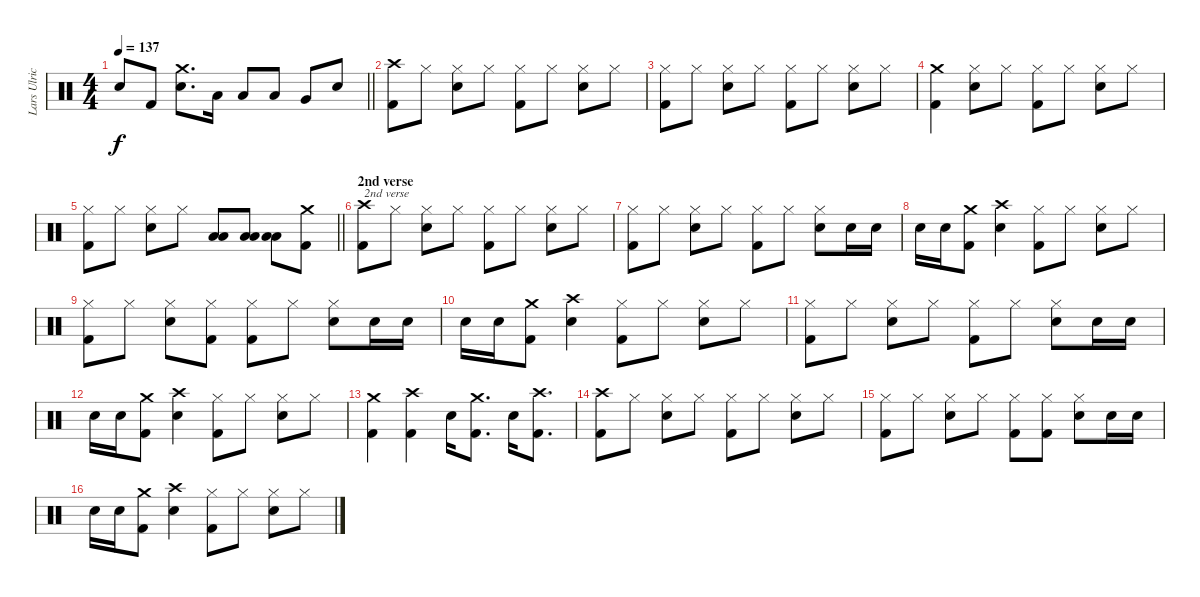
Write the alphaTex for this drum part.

\track ("Lars Ulrich" "Lars Ulric") {instrument percussion}
\staff {score}
\articulation defaults
\ts (4 4)
\tempo 137
\clef neutral
\barLineRight lightlight
\ks c "Snare (hit)"{t}.8{dy f} "Kick (hit) 2".8
("Snare (hit) 2" "Crash medium (hit)").8{d} "Low Tom (hit)".16 "Low Tom (hit)".8 "Low Tom (hit)".8 "Very Low Tom (hit)".8 "Snare (hit) 2".8 |
("Kick (hit) 2" "Crash high (hit)").8 "Hi-Hat (closed)".8 ("Snare (hit) 2" "Hi-Hat (closed)").8 "Hi-Hat (closed)".8 ("Kick (hit) 2" "Hi-Hat (closed)").8 "Hi-Hat (closed)".8 ("Snare (hit) 2" "Hi-Hat (closed)").8 "Hi-Hat (closed)".8 |
("Kick (hit) 2" "Hi-Hat (closed)").8 "Hi-Hat (closed)".8 ("Snare (hit) 2" "Hi-Hat (closed)").8 "Hi-Hat (closed)".8 ("Kick (hit) 2" "Hi-Hat (closed)").8 "Hi-Hat (closed)".8 ("Snare (hit) 2" "Hi-Hat (closed)").8 "Hi-Hat (closed)".8 |
("Kick (hit) 2" "Crash medium (hit)").4 ("Snare (hit) 2" "Hi-Hat (closed)").8 "Hi-Hat (closed)".8 ("Kick (hit) 2" "Hi-Hat (closed)").8 "Hi-Hat (closed)".8 ("Snare (hit) 2" "Hi-Hat (closed)").8 "Hi-Hat (closed)".8 |
\barLineRight lightlight
("Kick (hit) 2" "Hi-Hat (closed)").8 "Hi-Hat (closed)".8 ("Snare (hit) 2" "Hi-Hat (closed)").8 "Hi-Hat (closed)".8 ("Low Tom (hit)" "Low Floor Tom (hit)").8 ("Low Tom (hit)" "Low Floor Tom (hit)").8 ("Low Tom (hit)" "Low Floor Tom (hit)").8 ("Kick (hit) 2" "Crash medium (hit)").8 |
\section ("" "2nd verse")
("Kick (hit) 2" "Crash high (hit)").8{txt "2nd verse"} "Hi-Hat (closed)".8 ("Snare (hit) 2" "Hi-Hat (closed)").8 "Hi-Hat (closed)".8 ("Kick (hit) 2" "Hi-Hat (closed)").8 "Hi-Hat (closed)".8 ("Snare (hit) 2" "Hi-Hat (closed)").8 "Hi-Hat (closed)".8 |
("Kick (hit) 2" "Hi-Hat (closed)").8 "Hi-Hat (closed)".8 ("Snare (hit) 2" "Hi-Hat (closed)").8 "Hi-Hat (closed)".8 ("Kick (hit) 2" "Hi-Hat (closed)").8 "Hi-Hat (closed)".8 ("Snare (hit) 2" "Hi-Hat (closed)").8 "Snare (hit) 2".16 "Snare (hit) 2".16 |
"Snare (hit) 2".16 "Snare (hit) 2".16 ("Kick (hit) 2" "Crash medium (hit)").8 ("Snare (hit) 2" "Crash high (hit)").4 ("Kick (hit) 2" "Hi-Hat (closed)").8 "Hi-Hat (closed)".8 ("Snare (hit) 2" "Hi-Hat (closed)").8 "Hi-Hat (closed)".8 |
("Kick (hit) 2" "Hi-Hat (closed)").8 "Hi-Hat (closed)".8 ("Snare (hit) 2" "Hi-Hat (closed)").8 ("Kick (hit) 2" "Hi-Hat (closed)").8 ("Kick (hit) 2" "Hi-Hat (closed)").8 "Hi-Hat (closed)".8 ("Snare (hit) 2" "Hi-Hat (closed)").8 "Snare (hit) 2".16 "Snare (hit) 2".16 |
"Snare (hit) 2".16 "Snare (hit) 2".16 ("Kick (hit) 2" "Crash medium (hit)").8 ("Snare (hit) 2" "Crash high (hit)").4 ("Kick (hit) 2" "Hi-Hat (closed)").8 "Hi-Hat (closed)".8 ("Snare (hit) 2" "Hi-Hat (closed)").8 "Hi-Hat (closed)".8 |
("Kick (hit) 2" "Hi-Hat (closed)").8 "Hi-Hat (closed)".8 ("Snare (hit) 2" "Hi-Hat (closed)").8 "Hi-Hat (closed)".8 ("Kick (hit) 2" "Hi-Hat (closed)").8 "Hi-Hat (closed)".8 ("Snare (hit) 2" "Hi-Hat (closed)").8 "Snare (hit) 2".16 "Snare (hit) 2".16 |
"Snare (hit) 2".16 "Snare (hit) 2".16 ("Kick (hit) 2" "Crash medium (hit)").8 ("Snare (hit) 2" "Crash high (hit)").4 ("Kick (hit) 2" "Hi-Hat (closed)").8 "Hi-Hat (closed)".8 ("Snare (hit) 2" "Hi-Hat (closed)").8 "Hi-Hat (closed)".8 |
("Kick (hit) 2" "Crash medium (hit)").4 ("Kick (hit) 2" "Crash high (hit)").4 "Snare (hit) 2".16 ("Kick (hit) 2" "Crash medium (hit)").8{d} "Snare (hit) 2".16 ("Kick (hit) 2" "Crash high (hit)").8{d} |
("Kick (hit) 2" "Crash high (hit)").8 "Hi-Hat (closed)".8 ("Snare (hit) 2" "Hi-Hat (closed)").8 "Hi-Hat (closed)".8 ("Kick (hit) 2" "Hi-Hat (closed)").8 "Hi-Hat (closed)".8 ("Snare (hit) 2" "Hi-Hat (closed)").8 "Hi-Hat (closed)".8 |
("Kick (hit) 2" "Hi-Hat (closed)").8 "Hi-Hat (closed)".8 ("Snare (hit) 2" "Hi-Hat (closed)").8 "Hi-Hat (closed)".8 ("Kick (hit) 2" "Hi-Hat (closed)").8 ("Kick (hit) 2" "Hi-Hat (closed)").8 ("Snare (hit) 2" "Hi-Hat (closed)").8 "Snare (hit) 2".16 "Snare (hit) 2".16 |
"Snare (hit) 2".16 "Snare (hit) 2".16 ("Kick (hit) 2" "Crash medium (hit)").8 ("Snare (hit) 2" "Crash high (hit)").4 ("Kick (hit) 2" "Hi-Hat (closed)").8 "Hi-Hat (closed)".8 ("Snare (hit) 2" "Hi-Hat (closed)").8 "Hi-Hat (closed)".8
